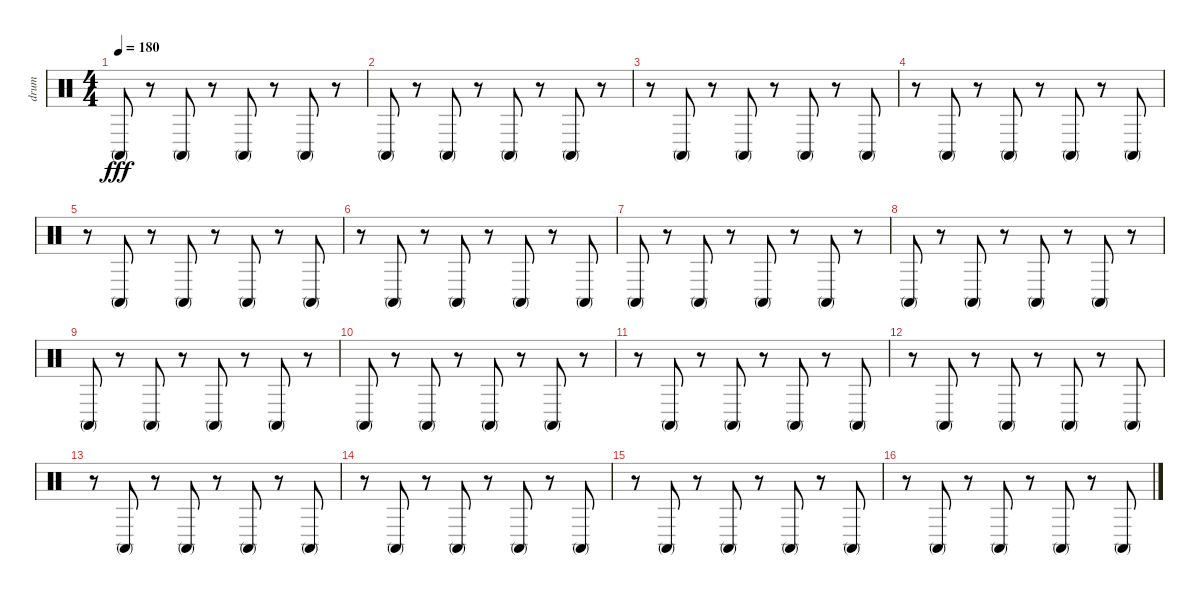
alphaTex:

\track ("drum" "drum") {instrument percussion}
\staff {score}
\articulation defaults
\ts (4 4)
\tempo 180
\clef neutral
\ks c "Conga high (mute)".8{dy fff}
r.8 "Conga high (mute)".8 r.8 "Conga high (mute)".8 r.8 "Conga high (mute)".8 r.8 |
"Conga high (mute)".8 r.8 "Conga high (mute)".8 r.8 "Conga high (mute)".8 r.8 "Conga high (mute)".8 r.8 |
r.8 "Conga high (mute)".8 r.8 "Conga high (mute)".8 r.8 "Conga high (mute)".8 r.8 "Conga high (mute)".8 |
r.8 "Conga high (mute)".8 r.8 "Conga high (mute)".8 r.8 "Conga high (mute)".8 r.8 "Conga high (mute)".8 |
r.8 "Conga high (mute)".8 r.8 "Conga high (mute)".8 r.8 "Conga high (mute)".8 r.8 "Conga high (mute)".8 |
r.8 "Conga high (mute)".8 r.8 "Conga high (mute)".8 r.8 "Conga high (mute)".8 r.8 "Conga high (mute)".8 |
"Conga high (mute)".8 r.8 "Conga high (mute)".8 r.8 "Conga high (mute)".8 r.8 "Conga high (mute)".8 r.8 |
"Conga high (mute)".8 r.8 "Conga high (mute)".8 r.8 "Conga high (mute)".8 r.8 "Conga high (mute)".8 r.8 |
"Conga high (mute)".8 r.8 "Conga high (mute)".8 r.8 "Conga high (mute)".8 r.8 "Conga high (mute)".8 r.8 |
"Conga high (mute)".8 r.8 "Conga high (mute)".8 r.8 "Conga high (mute)".8 r.8 "Conga high (mute)".8 r.8 |
r.8 "Conga high (mute)".8 r.8 "Conga high (mute)".8 r.8 "Conga high (mute)".8 r.8 "Conga high (mute)".8 |
r.8 "Conga high (mute)".8 r.8 "Conga high (mute)".8 r.8 "Conga high (mute)".8 r.8 "Conga high (mute)".8 |
r.8 "Conga high (mute)".8 r.8 "Conga high (mute)".8 r.8 "Conga high (mute)".8 r.8 "Conga high (mute)".8 |
r.8 "Conga high (mute)".8 r.8 "Conga high (mute)".8 r.8 "Conga high (mute)".8 r.8 "Conga high (mute)".8 |
r.8 "Conga high (mute)".8 r.8 "Conga high (mute)".8 r.8 "Conga high (mute)".8 r.8 "Conga high (mute)".8 |
r.8 "Conga high (mute)".8 r.8 "Conga high (mute)".8 r.8 "Conga high (mute)".8 r.8 "Conga high (mute)".8
